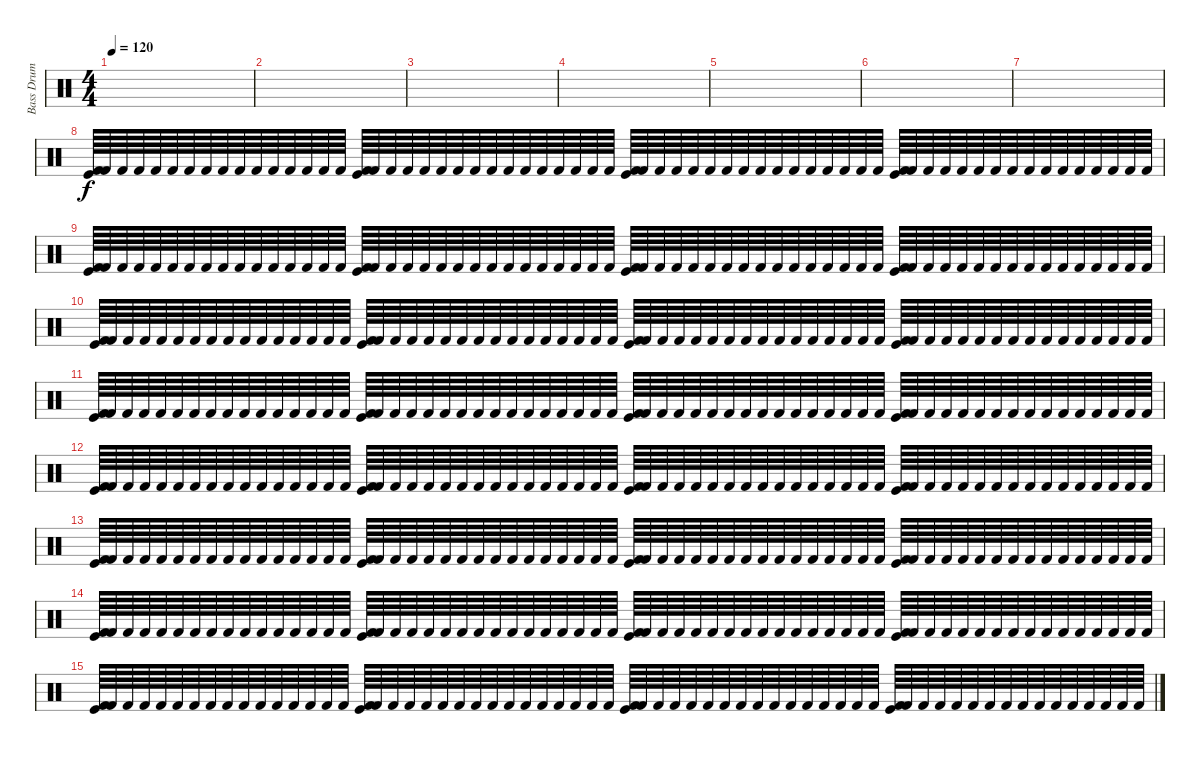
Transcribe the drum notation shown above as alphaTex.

\track ("Bass Drum Hyper Turbo Efect - Szpalsen" "Bass Drum ") {instrument percussion}
\staff {score}
\articulation defaults
\ts (4 4)
\tempo 120
\clef neutral
\ks c
|
|
|
|
|
|
|
("Kick (hit) 2" "Kick (hit)").64 "Kick (hit) 2".64 "Kick (hit) 2".64 "Kick (hit) 2".64 "Kick (hit) 2".64 "Kick (hit) 2".64 "Kick (hit) 2".64 "Kick (hit) 2".64 "Kick (hit) 2".64 "Kick (hit) 2".64 "Kick (hit) 2".64 "Kick (hit) 2".64 "Kick (hit) 2".64 "Kick (hit) 2".64 "Kick (hit) 2".64 "Kick (hit) 2".64 ("Kick (hit) 2" "Kick (hit)").64 "Kick (hit) 2".64 "Kick (hit) 2".64 "Kick (hit) 2".64 "Kick (hit) 2".64 "Kick (hit) 2".64 "Kick (hit) 2".64 "Kick (hit) 2".64 "Kick (hit) 2".64 "Kick (hit) 2".64 "Kick (hit) 2".64 "Kick (hit) 2".64 "Kick (hit) 2".64 "Kick (hit) 2".64 "Kick (hit) 2".64 "Kick (hit) 2".64 ("Kick (hit) 2" "Kick (hit)").64 "Kick (hit) 2".64 "Kick (hit) 2".64 "Kick (hit) 2".64 "Kick (hit) 2".64 "Kick (hit) 2".64 "Kick (hit) 2".64 "Kick (hit) 2".64 "Kick (hit) 2".64 "Kick (hit) 2".64 "Kick (hit) 2".64 "Kick (hit) 2".64 "Kick (hit) 2".64 "Kick (hit) 2".64 "Kick (hit) 2".64 "Kick (hit) 2".64 ("Kick (hit) 2" "Kick (hit)").64 "Kick (hit) 2".64 "Kick (hit) 2".64 "Kick (hit) 2".64 "Kick (hit) 2".64 "Kick (hit) 2".64 "Kick (hit) 2".64 "Kick (hit) 2".64 "Kick (hit) 2".64 "Kick (hit) 2".64 "Kick (hit) 2".64 "Kick (hit) 2".64 "Kick (hit) 2".64 "Kick (hit) 2".64 "Kick (hit) 2".64 "Kick (hit) 2".64 |
("Kick (hit) 2" "Kick (hit)").64 "Kick (hit) 2".64 "Kick (hit) 2".64 "Kick (hit) 2".64 "Kick (hit) 2".64 "Kick (hit) 2".64 "Kick (hit) 2".64 "Kick (hit) 2".64 "Kick (hit) 2".64 "Kick (hit) 2".64 "Kick (hit) 2".64 "Kick (hit) 2".64 "Kick (hit) 2".64 "Kick (hit) 2".64 "Kick (hit) 2".64 "Kick (hit) 2".64 ("Kick (hit) 2" "Kick (hit)").64 "Kick (hit) 2".64 "Kick (hit) 2".64 "Kick (hit) 2".64 "Kick (hit) 2".64 "Kick (hit) 2".64 "Kick (hit) 2".64 "Kick (hit) 2".64 "Kick (hit) 2".64 "Kick (hit) 2".64 "Kick (hit) 2".64 "Kick (hit) 2".64 "Kick (hit) 2".64 "Kick (hit) 2".64 "Kick (hit) 2".64 "Kick (hit) 2".64 ("Kick (hit) 2" "Kick (hit)").64 "Kick (hit) 2".64 "Kick (hit) 2".64 "Kick (hit) 2".64 "Kick (hit) 2".64 "Kick (hit) 2".64 "Kick (hit) 2".64 "Kick (hit) 2".64 "Kick (hit) 2".64 "Kick (hit) 2".64 "Kick (hit) 2".64 "Kick (hit) 2".64 "Kick (hit) 2".64 "Kick (hit) 2".64 "Kick (hit) 2".64 "Kick (hit) 2".64 ("Kick (hit) 2" "Kick (hit)").64 "Kick (hit) 2".64 "Kick (hit) 2".64 "Kick (hit) 2".64 "Kick (hit) 2".64 "Kick (hit) 2".64 "Kick (hit) 2".64 "Kick (hit) 2".64 "Kick (hit) 2".64 "Kick (hit) 2".64 "Kick (hit) 2".64 "Kick (hit) 2".64 "Kick (hit) 2".64 "Kick (hit) 2".64 "Kick (hit) 2".64 "Kick (hit) 2".64 |
("Kick (hit) 2" "Kick (hit)").64 "Kick (hit) 2".64 "Kick (hit) 2".64 "Kick (hit) 2".64 "Kick (hit) 2".64 "Kick (hit) 2".64 "Kick (hit) 2".64 "Kick (hit) 2".64 "Kick (hit) 2".64 "Kick (hit) 2".64 "Kick (hit) 2".64 "Kick (hit) 2".64 "Kick (hit) 2".64 "Kick (hit) 2".64 "Kick (hit) 2".64 "Kick (hit) 2".64 ("Kick (hit) 2" "Kick (hit)").64 "Kick (hit) 2".64 "Kick (hit) 2".64 "Kick (hit) 2".64 "Kick (hit) 2".64 "Kick (hit) 2".64 "Kick (hit) 2".64 "Kick (hit) 2".64 "Kick (hit) 2".64 "Kick (hit) 2".64 "Kick (hit) 2".64 "Kick (hit) 2".64 "Kick (hit) 2".64 "Kick (hit) 2".64 "Kick (hit) 2".64 "Kick (hit) 2".64 ("Kick (hit) 2" "Kick (hit)").64 "Kick (hit) 2".64 "Kick (hit) 2".64 "Kick (hit) 2".64 "Kick (hit) 2".64 "Kick (hit) 2".64 "Kick (hit) 2".64 "Kick (hit) 2".64 "Kick (hit) 2".64 "Kick (hit) 2".64 "Kick (hit) 2".64 "Kick (hit) 2".64 "Kick (hit) 2".64 "Kick (hit) 2".64 "Kick (hit) 2".64 "Kick (hit) 2".64 ("Kick (hit) 2" "Kick (hit)").64 "Kick (hit) 2".64 "Kick (hit) 2".64 "Kick (hit) 2".64 "Kick (hit) 2".64 "Kick (hit) 2".64 "Kick (hit) 2".64 "Kick (hit) 2".64 "Kick (hit) 2".64 "Kick (hit) 2".64 "Kick (hit) 2".64 "Kick (hit) 2".64 "Kick (hit) 2".64 "Kick (hit) 2".64 "Kick (hit) 2".64 "Kick (hit) 2".64 |
("Kick (hit) 2" "Kick (hit)").64 "Kick (hit) 2".64 "Kick (hit) 2".64 "Kick (hit) 2".64 "Kick (hit) 2".64 "Kick (hit) 2".64 "Kick (hit) 2".64 "Kick (hit) 2".64 "Kick (hit) 2".64 "Kick (hit) 2".64 "Kick (hit) 2".64 "Kick (hit) 2".64 "Kick (hit) 2".64 "Kick (hit) 2".64 "Kick (hit) 2".64 "Kick (hit) 2".64 ("Kick (hit) 2" "Kick (hit)").64 "Kick (hit) 2".64 "Kick (hit) 2".64 "Kick (hit) 2".64 "Kick (hit) 2".64 "Kick (hit) 2".64 "Kick (hit) 2".64 "Kick (hit) 2".64 "Kick (hit) 2".64 "Kick (hit) 2".64 "Kick (hit) 2".64 "Kick (hit) 2".64 "Kick (hit) 2".64 "Kick (hit) 2".64 "Kick (hit) 2".64 "Kick (hit) 2".64 ("Kick (hit) 2" "Kick (hit)").64 "Kick (hit) 2".64 "Kick (hit) 2".64 "Kick (hit) 2".64 "Kick (hit) 2".64 "Kick (hit) 2".64 "Kick (hit) 2".64 "Kick (hit) 2".64 "Kick (hit) 2".64 "Kick (hit) 2".64 "Kick (hit) 2".64 "Kick (hit) 2".64 "Kick (hit) 2".64 "Kick (hit) 2".64 "Kick (hit) 2".64 "Kick (hit) 2".64 ("Kick (hit) 2" "Kick (hit)").64 "Kick (hit) 2".64 "Kick (hit) 2".64 "Kick (hit) 2".64 "Kick (hit) 2".64 "Kick (hit) 2".64 "Kick (hit) 2".64 "Kick (hit) 2".64 "Kick (hit) 2".64 "Kick (hit) 2".64 "Kick (hit) 2".64 "Kick (hit) 2".64 "Kick (hit) 2".64 "Kick (hit) 2".64 "Kick (hit) 2".64 "Kick (hit) 2".64 |
("Kick (hit) 2" "Kick (hit)").64 "Kick (hit) 2".64 "Kick (hit) 2".64 "Kick (hit) 2".64 "Kick (hit) 2".64 "Kick (hit) 2".64 "Kick (hit) 2".64 "Kick (hit) 2".64 "Kick (hit) 2".64 "Kick (hit) 2".64 "Kick (hit) 2".64 "Kick (hit) 2".64 "Kick (hit) 2".64 "Kick (hit) 2".64 "Kick (hit) 2".64 "Kick (hit) 2".64 ("Kick (hit) 2" "Kick (hit)").64 "Kick (hit) 2".64 "Kick (hit) 2".64 "Kick (hit) 2".64 "Kick (hit) 2".64 "Kick (hit) 2".64 "Kick (hit) 2".64 "Kick (hit) 2".64 "Kick (hit) 2".64 "Kick (hit) 2".64 "Kick (hit) 2".64 "Kick (hit) 2".64 "Kick (hit) 2".64 "Kick (hit) 2".64 "Kick (hit) 2".64 "Kick (hit) 2".64 ("Kick (hit) 2" "Kick (hit)").64 "Kick (hit) 2".64 "Kick (hit) 2".64 "Kick (hit) 2".64 "Kick (hit) 2".64 "Kick (hit) 2".64 "Kick (hit) 2".64 "Kick (hit) 2".64 "Kick (hit) 2".64 "Kick (hit) 2".64 "Kick (hit) 2".64 "Kick (hit) 2".64 "Kick (hit) 2".64 "Kick (hit) 2".64 "Kick (hit) 2".64 "Kick (hit) 2".64 ("Kick (hit) 2" "Kick (hit)").64 "Kick (hit) 2".64 "Kick (hit) 2".64 "Kick (hit) 2".64 "Kick (hit) 2".64 "Kick (hit) 2".64 "Kick (hit) 2".64 "Kick (hit) 2".64 "Kick (hit) 2".64 "Kick (hit) 2".64 "Kick (hit) 2".64 "Kick (hit) 2".64 "Kick (hit) 2".64 "Kick (hit) 2".64 "Kick (hit) 2".64 "Kick (hit) 2".64 |
("Kick (hit) 2" "Kick (hit)").64 "Kick (hit) 2".64 "Kick (hit) 2".64 "Kick (hit) 2".64 "Kick (hit) 2".64 "Kick (hit) 2".64 "Kick (hit) 2".64 "Kick (hit) 2".64 "Kick (hit) 2".64 "Kick (hit) 2".64 "Kick (hit) 2".64 "Kick (hit) 2".64 "Kick (hit) 2".64 "Kick (hit) 2".64 "Kick (hit) 2".64 "Kick (hit) 2".64 ("Kick (hit) 2" "Kick (hit)").64 "Kick (hit) 2".64 "Kick (hit) 2".64 "Kick (hit) 2".64 "Kick (hit) 2".64 "Kick (hit) 2".64 "Kick (hit) 2".64 "Kick (hit) 2".64 "Kick (hit) 2".64 "Kick (hit) 2".64 "Kick (hit) 2".64 "Kick (hit) 2".64 "Kick (hit) 2".64 "Kick (hit) 2".64 "Kick (hit) 2".64 "Kick (hit) 2".64 ("Kick (hit) 2" "Kick (hit)").64 "Kick (hit) 2".64 "Kick (hit) 2".64 "Kick (hit) 2".64 "Kick (hit) 2".64 "Kick (hit) 2".64 "Kick (hit) 2".64 "Kick (hit) 2".64 "Kick (hit) 2".64 "Kick (hit) 2".64 "Kick (hit) 2".64 "Kick (hit) 2".64 "Kick (hit) 2".64 "Kick (hit) 2".64 "Kick (hit) 2".64 "Kick (hit) 2".64 ("Kick (hit) 2" "Kick (hit)").64 "Kick (hit) 2".64 "Kick (hit) 2".64 "Kick (hit) 2".64 "Kick (hit) 2".64 "Kick (hit) 2".64 "Kick (hit) 2".64 "Kick (hit) 2".64 "Kick (hit) 2".64 "Kick (hit) 2".64 "Kick (hit) 2".64 "Kick (hit) 2".64 "Kick (hit) 2".64 "Kick (hit) 2".64 "Kick (hit) 2".64 "Kick (hit) 2".64 |
("Kick (hit) 2" "Kick (hit)").64 "Kick (hit) 2".64 "Kick (hit) 2".64 "Kick (hit) 2".64 "Kick (hit) 2".64 "Kick (hit) 2".64 "Kick (hit) 2".64 "Kick (hit) 2".64 "Kick (hit) 2".64 "Kick (hit) 2".64 "Kick (hit) 2".64 "Kick (hit) 2".64 "Kick (hit) 2".64 "Kick (hit) 2".64 "Kick (hit) 2".64 "Kick (hit) 2".64 ("Kick (hit) 2" "Kick (hit)").64 "Kick (hit) 2".64 "Kick (hit) 2".64 "Kick (hit) 2".64 "Kick (hit) 2".64 "Kick (hit) 2".64 "Kick (hit) 2".64 "Kick (hit) 2".64 "Kick (hit) 2".64 "Kick (hit) 2".64 "Kick (hit) 2".64 "Kick (hit) 2".64 "Kick (hit) 2".64 "Kick (hit) 2".64 "Kick (hit) 2".64 "Kick (hit) 2".64 ("Kick (hit) 2" "Kick (hit)").64 "Kick (hit) 2".64 "Kick (hit) 2".64 "Kick (hit) 2".64 "Kick (hit) 2".64 "Kick (hit) 2".64 "Kick (hit) 2".64 "Kick (hit) 2".64 "Kick (hit) 2".64 "Kick (hit) 2".64 "Kick (hit) 2".64 "Kick (hit) 2".64 "Kick (hit) 2".64 "Kick (hit) 2".64 "Kick (hit) 2".64 "Kick (hit) 2".64 ("Kick (hit) 2" "Kick (hit)").64 "Kick (hit) 2".64 "Kick (hit) 2".64 "Kick (hit) 2".64 "Kick (hit) 2".64 "Kick (hit) 2".64 "Kick (hit) 2".64 "Kick (hit) 2".64 "Kick (hit) 2".64 "Kick (hit) 2".64 "Kick (hit) 2".64 "Kick (hit) 2".64 "Kick (hit) 2".64 "Kick (hit) 2".64 "Kick (hit) 2".64 "Kick (hit) 2".64 |
("Kick (hit) 2" "Kick (hit)").64 "Kick (hit) 2".64 "Kick (hit) 2".64 "Kick (hit) 2".64 "Kick (hit) 2".64 "Kick (hit) 2".64 "Kick (hit) 2".64 "Kick (hit) 2".64 "Kick (hit) 2".64 "Kick (hit) 2".64 "Kick (hit) 2".64 "Kick (hit) 2".64 "Kick (hit) 2".64 "Kick (hit) 2".64 "Kick (hit) 2".64 "Kick (hit) 2".64 ("Kick (hit) 2" "Kick (hit)").64 "Kick (hit) 2".64 "Kick (hit) 2".64 "Kick (hit) 2".64 "Kick (hit) 2".64 "Kick (hit) 2".64 "Kick (hit) 2".64 "Kick (hit) 2".64 "Kick (hit) 2".64 "Kick (hit) 2".64 "Kick (hit) 2".64 "Kick (hit) 2".64 "Kick (hit) 2".64 "Kick (hit) 2".64 "Kick (hit) 2".64 "Kick (hit) 2".64 ("Kick (hit) 2" "Kick (hit)").64 "Kick (hit) 2".64 "Kick (hit) 2".64 "Kick (hit) 2".64 "Kick (hit) 2".64 "Kick (hit) 2".64 "Kick (hit) 2".64 "Kick (hit) 2".64 "Kick (hit) 2".64 "Kick (hit) 2".64 "Kick (hit) 2".64 "Kick (hit) 2".64 "Kick (hit) 2".64 "Kick (hit) 2".64 "Kick (hit) 2".64 "Kick (hit) 2".64 ("Kick (hit) 2" "Kick (hit)").64 "Kick (hit) 2".64 "Kick (hit) 2".64 "Kick (hit) 2".64 "Kick (hit) 2".64 "Kick (hit) 2".64 "Kick (hit) 2".64 "Kick (hit) 2".64 "Kick (hit) 2".64 "Kick (hit) 2".64 "Kick (hit) 2".64 "Kick (hit) 2".64 "Kick (hit) 2".64 "Kick (hit) 2".64 "Kick (hit) 2".64 "Kick (hit) 2".64
